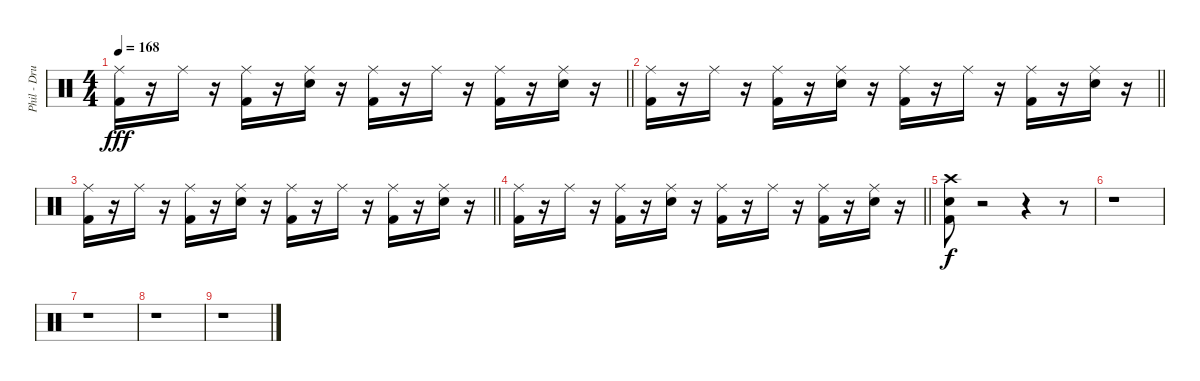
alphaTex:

\track ("Phil - Drums" "Phil - Dru") {instrument percussion}
\staff {score}
\articulation defaults
\ts (4 4)
\tempo 168
\clef neutral
\barLineRight lightlight
\ks c
("Ride (middle)" "Kick (hit) 2").16{dy fff} r.16 "Ride (middle)".16 r.16 ("Ride (middle)" "Kick (hit) 2").16 r.16 ("Ride (middle)" "Electric Snare (hit)").16 r.16 ("Ride (middle)" "Kick (hit) 2").16 r.16 "Ride (middle)".16 r.16 ("Ride (middle)" "Kick (hit) 2").16 r.16 ("Ride (middle)" "Electric Snare (hit)").16 r.16 |
\barLineRight lightlight
("Ride (middle)" "Kick (hit) 2").16 r.16 "Ride (middle)".16 r.16 ("Ride (middle)" "Kick (hit) 2").16 r.16 ("Ride (middle)" "Electric Snare (hit)").16 r.16 ("Ride (middle)" "Kick (hit) 2").16 r.16 "Ride (middle)".16 r.16 ("Ride (middle)" "Kick (hit) 2").16 r.16 ("Ride (middle)" "Electric Snare (hit)").16 r.16 |
\barLineRight lightlight
("Ride (middle)" "Kick (hit) 2").16 r.16 "Ride (middle)".16 r.16 ("Ride (middle)" "Kick (hit) 2").16 r.16 ("Ride (middle)" "Electric Snare (hit)").16 r.16 ("Ride (middle)" "Kick (hit) 2").16 r.16 "Ride (middle)".16 r.16 ("Ride (middle)" "Kick (hit) 2").16 r.16 ("Ride (middle)" "Electric Snare (hit)").16 r.16 |
\barLineRight lightlight
("Ride (middle)" "Kick (hit) 2").16 r.16 "Ride (middle)".16 r.16 ("Ride (middle)" "Kick (hit) 2").16 r.16 ("Ride (middle)" "Electric Snare (hit)").16 r.16 ("Ride (middle)" "Kick (hit) 2").16 r.16 "Ride (middle)".16 r.16 ("Ride (middle)" "Kick (hit) 2").16 r.16 ("Ride (middle)" "Electric Snare (hit)").16 r.16 |
("Crash high (hit)" "Electric Snare (hit)" "Kick (hit) 2").8{dy f} r.2 r.4 r.8 |
r.1 |
r.1 |
r.1 |
r.1
